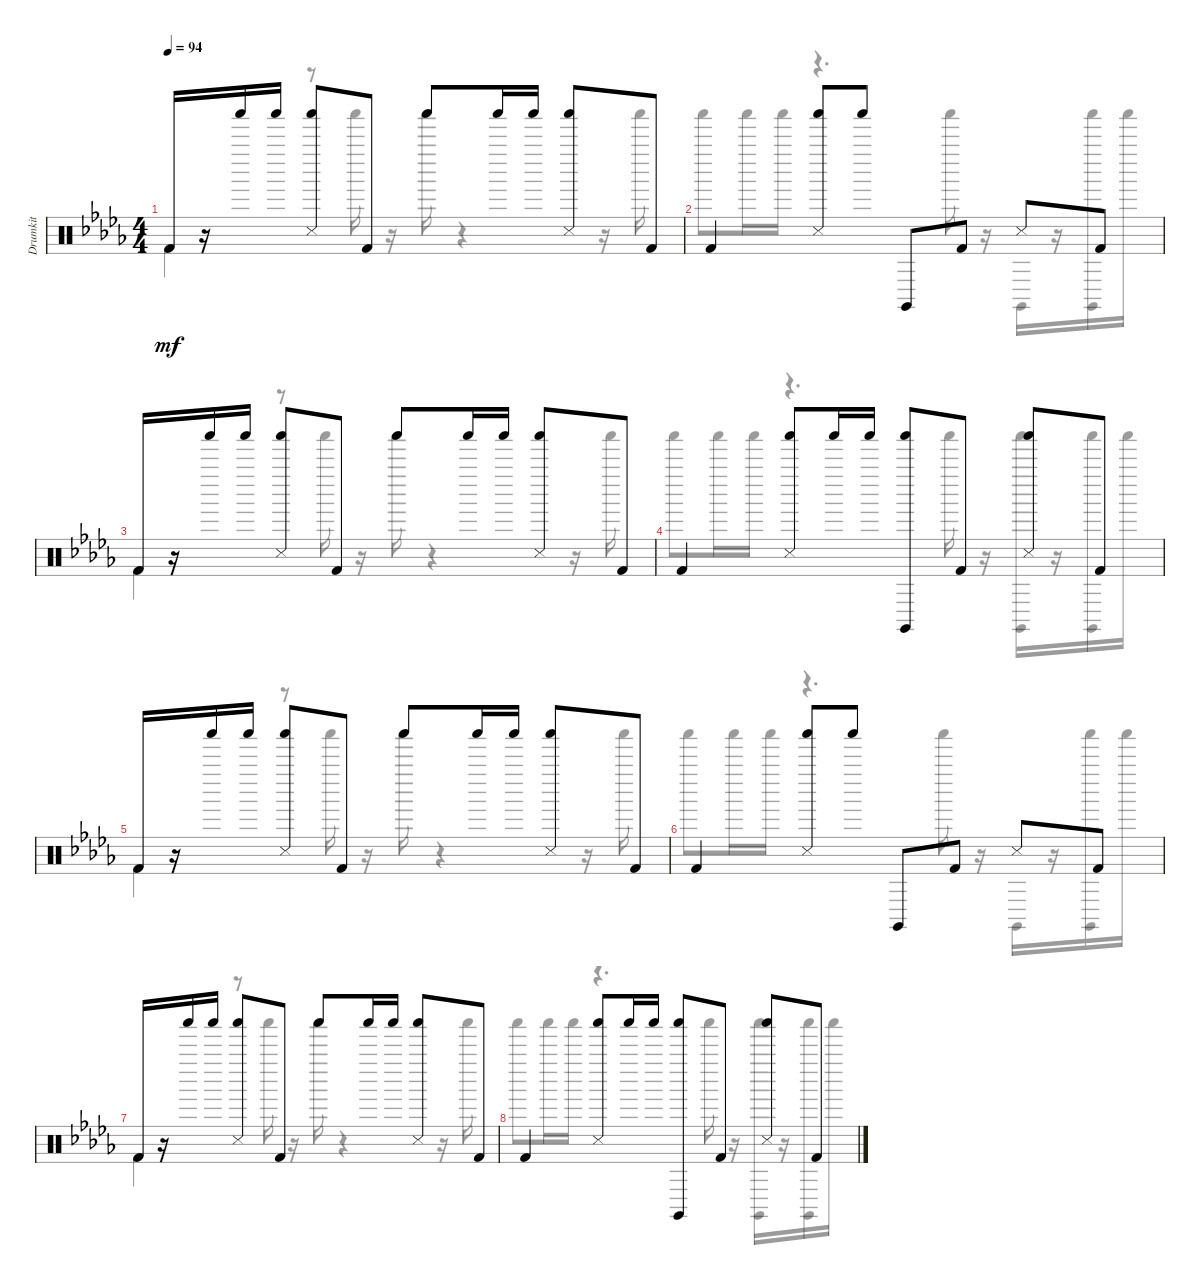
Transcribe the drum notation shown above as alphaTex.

\track ("Drumkit" "Drumkit") {instrument percussion}
\staff {score}
\articulation defaults
\voice
\ts (4 4)
\tempo 94
\clef neutral
\ks bbminor "Kick (hit) 2".16{dy mf}
r.16 "Shaker (hit)".16 "Shaker (hit)".16 ("Snare (side stick) 3" "Shaker (hit)").8 "Kick (hit) 2".8 "Shaker (hit)".8 "Shaker (hit)".16 "Shaker (hit)".16 ("Shaker (hit)" "Snare (side stick) 3").8 "Kick (hit) 2".8 |
"Kick (hit) 2".4 ("Snare (side stick) 3" "Shaker (hit)").8 "Shaker (hit)".8 "Claves (hit)".8 "Kick (hit) 2".8 "Snare (side stick) 3".8 "Kick (hit) 2".8 |
"Kick (hit) 2".16 r.16 "Shaker (hit)".16 "Shaker (hit)".16 ("Snare (side stick) 3" "Shaker (hit)").8 "Kick (hit) 2".8 "Shaker (hit)".8 "Shaker (hit)".16 "Shaker (hit)".16 ("Shaker (hit)" "Snare (side stick) 3").8 "Kick (hit) 2".8 |
"Kick (hit) 2".4 ("Snare (side stick) 3" "Shaker (hit)").8 "Shaker (hit)".16 "Shaker (hit)".16 ("Shaker (hit)" "Claves (hit)").8 "Kick (hit) 2".8 ("Snare (side stick) 3" "Shaker (hit)").8 "Kick (hit) 2".8 |
"Kick (hit) 2".16 r.16 "Shaker (hit)".16 "Shaker (hit)".16 ("Shaker (hit)" "Snare (side stick) 3").8 "Kick (hit) 2".8 "Shaker (hit)".8 "Shaker (hit)".16 "Shaker (hit)".16 ("Snare (side stick) 3" "Shaker (hit)").8 "Kick (hit) 2".8 |
"Kick (hit) 2".4 ("Shaker (hit)" "Snare (side stick) 3").8 "Shaker (hit)".8 "Claves (hit)".8 "Kick (hit) 2".8 "Snare (side stick) 3".8 "Kick (hit) 2".8 |
"Kick (hit) 2".16 r.16 "Shaker (hit)".16 "Shaker (hit)".16 ("Shaker (hit)" "Snare (side stick) 3").8 "Kick (hit) 2".8 "Shaker (hit)".8 "Shaker (hit)".16 "Shaker (hit)".16 ("Shaker (hit)" "Snare (side stick) 3").8 "Kick (hit) 2".8 |
"Kick (hit) 2".4 ("Shaker (hit)" "Snare (side stick) 3").8 "Shaker (hit)".16 "Shaker (hit)".16 ("Shaker (hit)" "Claves (hit)").8 "Kick (hit) 2".8 ("Shaker (hit)" "Snare (side stick) 3").8 "Kick (hit) 2".8
\voice
\clef neutral
\ottava regular
\simile none
\ks bbminor "Kick (hit) 2".4{dy mf}
r.8 "Shaker (hit)".16 r.16 "Shaker (hit)".16 r.4 r.16 "Shaker (hit)".16 |
"Shaker (hit)".8 "Shaker (hit)".16 "Shaker (hit)".16 r.4{d} "Shaker (hit)".16 r.16 "Claves (hit)".16 r.16 ("Claves (hit)" "Shaker (hit)").16 "Shaker (hit)".16 |
"Kick (hit) 2".4 r.8 "Shaker (hit)".16 r.16 "Shaker (hit)".16 r.4 r.16 "Shaker (hit)".16 |
"Shaker (hit)".8 "Shaker (hit)".16 "Shaker (hit)".16 r.4{d} "Shaker (hit)".16 r.16 ("Shaker (hit)" "Claves (hit)").16 r.16 ("Claves (hit)" "Shaker (hit)").16 "Shaker (hit)".16 |
"Kick (hit) 2".4 r.8 "Shaker (hit)".16 r.16 "Shaker (hit)".16 r.4 r.16 "Shaker (hit)".16 |
"Shaker (hit)".8 "Shaker (hit)".16 "Shaker (hit)".16 r.4{d} "Shaker (hit)".16 r.16 "Claves (hit)".16 r.16 ("Shaker (hit)" "Claves (hit)").16 "Shaker (hit)".16 |
"Kick (hit) 2".4 r.8 "Shaker (hit)".16 r.16 "Shaker (hit)".16 r.4 r.16 "Shaker (hit)".16 |
"Shaker (hit)".8 "Shaker (hit)".16 "Shaker (hit)".16 r.4{d} "Shaker (hit)".16 r.16 ("Shaker (hit)" "Claves (hit)").16 r.16 ("Claves (hit)" "Shaker (hit)").16 "Shaker (hit)".16
